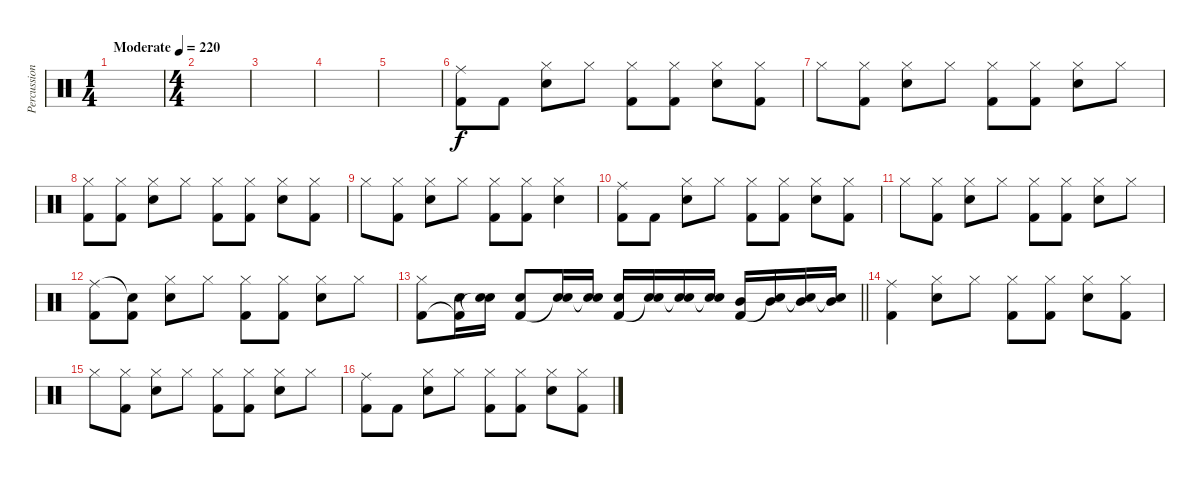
\track ("Percussion" "Percussion") {instrument percussion}
\staff {score}
\articulation defaults
\ts (1 4)
\tempo (220 "Moderate")
\clef neutral
\ks c
|
\ts (4 4)
|
|
|
|
("Ride (middle)" "Kick (hit) 2").8 "Kick (hit) 2".8 ("Hi-Hat (closed)" "Electric Snare (hit)").8 "Hi-Hat (closed)".8 ("Hi-Hat (closed)" "Kick (hit) 2").8 ("Hi-Hat (closed)" "Kick (hit) 2").8 ("Hi-Hat (closed)" "Electric Snare (hit)").8 ("Hi-Hat (closed)" "Kick (hit) 2").8 |
"Hi-Hat (closed)".8 ("Hi-Hat (closed)" "Kick (hit) 2").8 ("Hi-Hat (closed)" "Electric Snare (hit)").8 "Hi-Hat (closed)".8 ("Hi-Hat (closed)" "Kick (hit) 2").8 ("Hi-Hat (closed)" "Kick (hit) 2").8 ("Hi-Hat (closed)" "Electric Snare (hit)").8 "Hi-Hat (closed)".8 |
("Hi-Hat (closed)" "Kick (hit) 2").8 ("Hi-Hat (closed)" "Kick (hit) 2").8 ("Hi-Hat (closed)" "Electric Snare (hit)").8 "Hi-Hat (closed)".8 ("Hi-Hat (closed)" "Kick (hit) 2").8 ("Hi-Hat (closed)" "Kick (hit) 2").8 ("Hi-Hat (closed)" "Electric Snare (hit)").8 ("Hi-Hat (closed)" "Kick (hit) 2").8 |
"Hi-Hat (closed)".8 ("Hi-Hat (closed)" "Kick (hit) 2").8 ("Hi-Hat (closed)" "Electric Snare (hit)").8 "Hi-Hat (closed)".8 ("Hi-Hat (closed)" "Kick (hit) 2").8 ("Hi-Hat (closed)" "Kick (hit) 2").8 ("Hi-Hat (closed)" "Electric Snare (hit)").4 |
("Ride (middle)" "Kick (hit) 2").8 "Kick (hit) 2".8 ("Hi-Hat (closed)" "Electric Snare (hit)").8 "Hi-Hat (closed)".8 ("Hi-Hat (closed)" "Kick (hit) 2").8 ("Hi-Hat (closed)" "Kick (hit) 2").8 ("Hi-Hat (closed)" "Electric Snare (hit)").8 ("Hi-Hat (closed)" "Kick (hit) 2").8 |
"Hi-Hat (closed)".8 ("Hi-Hat (closed)" "Kick (hit) 2").8 ("Hi-Hat (closed)" "Electric Snare (hit)").8 "Hi-Hat (closed)".8 ("Hi-Hat (closed)" "Kick (hit) 2").8 ("Hi-Hat (closed)" "Kick (hit) 2").8 ("Hi-Hat (closed)" "Electric Snare (hit)").8 "Hi-Hat (closed)".8 |
("Ride (middle)" "Kick (hit) 2").8 ("Snare (hit)"{t} "Kick (hit) 2").8 ("Hi-Hat (closed)" "Electric Snare (hit)").8 "Hi-Hat (closed)".8 ("Hi-Hat (closed)" "Kick (hit) 2").8 ("Hi-Hat (closed)" "Kick (hit) 2").8 ("Hi-Hat (closed)" "Electric Snare (hit)").8 "Hi-Hat (closed)".8 |
\barLineRight lightlight
("Hi-Hat (closed)" "Kick (hit) 2").8 ("Electric Snare (hit)" "Kick (hit) 2"{t}).16 ("Electric Snare (hit)" "Snare (hit)"{t}).16 ("Electric Snare (hit)" "Kick (hit) 2").8 ("Electric Snare (hit)" "Snare (hit)"{t}).16 ("Electric Snare (hit)" "Snare (hit)"{t}).16 ("Electric Snare (hit)" "Kick (hit) 2").16 ("Electric Snare (hit)" "Snare (hit)"{t}).16 ("Electric Snare (hit)" "Snare (hit)"{t}).16 ("Electric Snare (hit)" "Snare (hit)"{t}).16 ("Mid Tom (hit)" "Kick (hit) 2").16 ("Mid Tom (hit)" "Snare (hit)"{t}).16 ("Mid Tom (hit)" "Snare (hit)"{t}).16 ("Mid Tom (hit)" "Snare (hit)"{t}).16 |
("Ride (middle)" "Kick (hit) 2").4 ("Hi-Hat (closed)" "Electric Snare (hit)").8 "Hi-Hat (closed)".8 ("Hi-Hat (closed)" "Kick (hit) 2").8 ("Hi-Hat (closed)" "Kick (hit) 2").8 ("Hi-Hat (closed)" "Electric Snare (hit)").8 ("Hi-Hat (closed)" "Kick (hit) 2").8 |
"Hi-Hat (closed)".8 ("Hi-Hat (closed)" "Kick (hit) 2").8 ("Hi-Hat (closed)" "Electric Snare (hit)").8 "Hi-Hat (closed)".8 ("Hi-Hat (closed)" "Kick (hit) 2").8 ("Hi-Hat (closed)" "Kick (hit) 2").8 ("Hi-Hat (closed)" "Electric Snare (hit)").8 "Hi-Hat (closed)".8 |
("Ride (middle)" "Kick (hit) 2").8 "Kick (hit) 2".8 ("Hi-Hat (closed)" "Electric Snare (hit)").8 "Hi-Hat (closed)".8 ("Hi-Hat (closed)" "Kick (hit) 2").8 ("Hi-Hat (closed)" "Kick (hit) 2").8 ("Hi-Hat (closed)" "Electric Snare (hit)").8 ("Hi-Hat (closed)" "Kick (hit) 2").8
